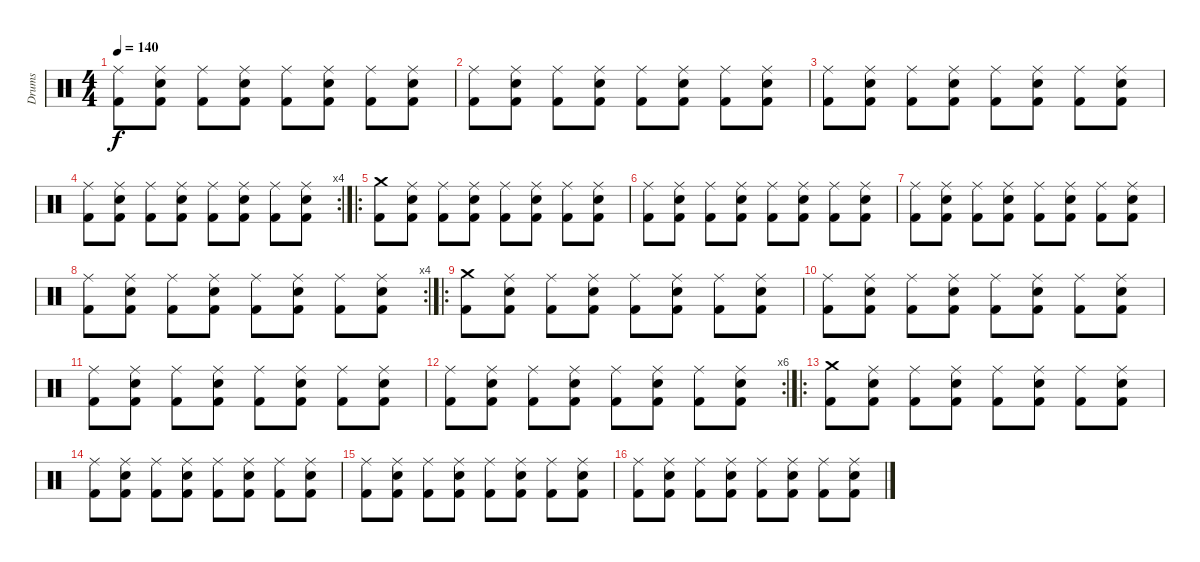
\track ("Drums" "Drums") {instrument percussion}
\staff {score}
\articulation defaults
\ts (4 4)
\tempo 140
\clef neutral
\ks c
("Ride (middle)" "Kick (hit) 2").8{dy f} ("Ride (middle)" "Electric Snare (hit)" "Kick (hit) 2").8 ("Ride (middle)" "Kick (hit) 2").8 ("Ride (middle)" "Electric Snare (hit)" "Kick (hit) 2").8 ("Ride (middle)" "Kick (hit) 2").8 ("Ride (middle)" "Electric Snare (hit)" "Kick (hit) 2").8 ("Ride (middle)" "Kick (hit) 2").8 ("Ride (middle)" "Electric Snare (hit)" "Kick (hit) 2").8 |
("Ride (middle)" "Kick (hit) 2").8 ("Ride (middle)" "Electric Snare (hit)" "Kick (hit) 2").8 ("Ride (middle)" "Kick (hit) 2").8 ("Ride (middle)" "Electric Snare (hit)" "Kick (hit) 2").8 ("Ride (middle)" "Kick (hit) 2").8 ("Ride (middle)" "Electric Snare (hit)" "Kick (hit) 2").8 ("Ride (middle)" "Kick (hit) 2").8 ("Ride (middle)" "Electric Snare (hit)" "Kick (hit) 2").8 |
("Ride (middle)" "Kick (hit) 2").8 ("Ride (middle)" "Electric Snare (hit)" "Kick (hit) 2").8 ("Ride (middle)" "Kick (hit) 2").8 ("Ride (middle)" "Electric Snare (hit)" "Kick (hit) 2").8 ("Ride (middle)" "Kick (hit) 2").8 ("Ride (middle)" "Electric Snare (hit)" "Kick (hit) 2").8 ("Ride (middle)" "Kick (hit) 2").8 ("Ride (middle)" "Electric Snare (hit)" "Kick (hit) 2").8 |
\rc 4
("Ride (middle)" "Kick (hit) 2").8 ("Ride (middle)" "Electric Snare (hit)" "Kick (hit) 2").8 ("Ride (middle)" "Kick (hit) 2").8 ("Ride (middle)" "Electric Snare (hit)" "Kick (hit) 2").8 ("Ride (middle)" "Kick (hit) 2").8 ("Ride (middle)" "Electric Snare (hit)" "Kick (hit) 2").8 ("Ride (middle)" "Kick (hit) 2").8 ("Ride (middle)" "Electric Snare (hit)" "Kick (hit) 2").8 |
\ro
("Crash medium (hit)" "Kick (hit) 2").8 ("Ride (middle)" "Electric Snare (hit)" "Kick (hit) 2").8 ("Ride (middle)" "Kick (hit) 2").8 ("Ride (middle)" "Electric Snare (hit)" "Kick (hit) 2").8 ("Ride (middle)" "Kick (hit) 2").8 ("Ride (middle)" "Electric Snare (hit)" "Kick (hit) 2").8 ("Ride (middle)" "Kick (hit) 2").8 ("Ride (middle)" "Electric Snare (hit)" "Kick (hit) 2").8 |
("Ride (middle)" "Kick (hit) 2").8 ("Ride (middle)" "Electric Snare (hit)" "Kick (hit) 2").8 ("Ride (middle)" "Kick (hit) 2").8 ("Ride (middle)" "Electric Snare (hit)" "Kick (hit) 2").8 ("Ride (middle)" "Kick (hit) 2").8 ("Ride (middle)" "Electric Snare (hit)" "Kick (hit) 2").8 ("Ride (middle)" "Kick (hit) 2").8 ("Ride (middle)" "Electric Snare (hit)" "Kick (hit) 2").8 |
("Ride (middle)" "Kick (hit) 2").8 ("Ride (middle)" "Electric Snare (hit)" "Kick (hit) 2").8 ("Ride (middle)" "Kick (hit) 2").8 ("Ride (middle)" "Electric Snare (hit)" "Kick (hit) 2").8 ("Ride (middle)" "Kick (hit) 2").8 ("Ride (middle)" "Electric Snare (hit)" "Kick (hit) 2").8 ("Ride (middle)" "Kick (hit) 2").8 ("Ride (middle)" "Electric Snare (hit)" "Kick (hit) 2").8 |
\rc 4
("Ride (middle)" "Kick (hit) 2").8 ("Ride (middle)" "Electric Snare (hit)" "Kick (hit) 2").8 ("Ride (middle)" "Kick (hit) 2").8 ("Ride (middle)" "Electric Snare (hit)" "Kick (hit) 2").8 ("Ride (middle)" "Kick (hit) 2").8 ("Ride (middle)" "Electric Snare (hit)" "Kick (hit) 2").8 ("Ride (middle)" "Kick (hit) 2").8 ("Ride (middle)" "Electric Snare (hit)" "Kick (hit) 2").8 |
\ro
("Crash medium (hit)" "Kick (hit) 2").8 ("Ride (middle)" "Electric Snare (hit)" "Kick (hit) 2").8 ("Ride (middle)" "Kick (hit) 2").8 ("Ride (middle)" "Electric Snare (hit)" "Kick (hit) 2").8 ("Ride (middle)" "Kick (hit) 2").8 ("Ride (middle)" "Electric Snare (hit)" "Kick (hit) 2").8 ("Ride (middle)" "Kick (hit) 2").8 ("Ride (middle)" "Electric Snare (hit)" "Kick (hit) 2").8 |
("Ride (middle)" "Kick (hit) 2").8 ("Ride (middle)" "Electric Snare (hit)" "Kick (hit) 2").8 ("Ride (middle)" "Kick (hit) 2").8 ("Ride (middle)" "Electric Snare (hit)" "Kick (hit) 2").8 ("Ride (middle)" "Kick (hit) 2").8 ("Ride (middle)" "Electric Snare (hit)" "Kick (hit) 2").8 ("Ride (middle)" "Kick (hit) 2").8 ("Ride (middle)" "Electric Snare (hit)" "Kick (hit) 2").8 |
("Ride (middle)" "Kick (hit) 2").8 ("Ride (middle)" "Electric Snare (hit)" "Kick (hit) 2").8 ("Ride (middle)" "Kick (hit) 2").8 ("Ride (middle)" "Electric Snare (hit)" "Kick (hit) 2").8 ("Ride (middle)" "Kick (hit) 2").8 ("Ride (middle)" "Electric Snare (hit)" "Kick (hit) 2").8 ("Ride (middle)" "Kick (hit) 2").8 ("Ride (middle)" "Electric Snare (hit)" "Kick (hit) 2").8 |
\rc 6
("Ride (middle)" "Kick (hit) 2").8 ("Ride (middle)" "Electric Snare (hit)" "Kick (hit) 2").8 ("Ride (middle)" "Kick (hit) 2").8 ("Ride (middle)" "Electric Snare (hit)" "Kick (hit) 2").8 ("Ride (middle)" "Kick (hit) 2").8 ("Ride (middle)" "Electric Snare (hit)" "Kick (hit) 2").8 ("Ride (middle)" "Kick (hit) 2").8 ("Ride (middle)" "Electric Snare (hit)" "Kick (hit) 2").8 |
\ro
("Crash medium (hit)" "Kick (hit) 2").8 ("Ride (middle)" "Electric Snare (hit)" "Kick (hit) 2").8 ("Ride (middle)" "Kick (hit) 2").8 ("Ride (middle)" "Electric Snare (hit)" "Kick (hit) 2").8 ("Ride (middle)" "Kick (hit) 2").8 ("Ride (middle)" "Electric Snare (hit)" "Kick (hit) 2").8 ("Ride (middle)" "Kick (hit) 2").8 ("Ride (middle)" "Electric Snare (hit)" "Kick (hit) 2").8 |
("Ride (middle)" "Kick (hit) 2").8 ("Ride (middle)" "Electric Snare (hit)" "Kick (hit) 2").8 ("Ride (middle)" "Kick (hit) 2").8 ("Ride (middle)" "Electric Snare (hit)" "Kick (hit) 2").8 ("Ride (middle)" "Kick (hit) 2").8 ("Ride (middle)" "Electric Snare (hit)" "Kick (hit) 2").8 ("Ride (middle)" "Kick (hit) 2").8 ("Ride (middle)" "Electric Snare (hit)" "Kick (hit) 2").8 |
("Ride (middle)" "Kick (hit) 2").8 ("Ride (middle)" "Electric Snare (hit)" "Kick (hit) 2").8 ("Ride (middle)" "Kick (hit) 2").8 ("Ride (middle)" "Electric Snare (hit)" "Kick (hit) 2").8 ("Ride (middle)" "Kick (hit) 2").8 ("Ride (middle)" "Electric Snare (hit)" "Kick (hit) 2").8 ("Ride (middle)" "Kick (hit) 2").8 ("Ride (middle)" "Electric Snare (hit)" "Kick (hit) 2").8 |
("Ride (middle)" "Kick (hit) 2").8 ("Ride (middle)" "Electric Snare (hit)" "Kick (hit) 2").8 ("Ride (middle)" "Kick (hit) 2").8 ("Ride (middle)" "Electric Snare (hit)" "Kick (hit) 2").8 ("Ride (middle)" "Kick (hit) 2").8 ("Ride (middle)" "Electric Snare (hit)" "Kick (hit) 2").8 ("Ride (middle)" "Kick (hit) 2").8 ("Ride (middle)" "Electric Snare (hit)" "Kick (hit) 2").8
